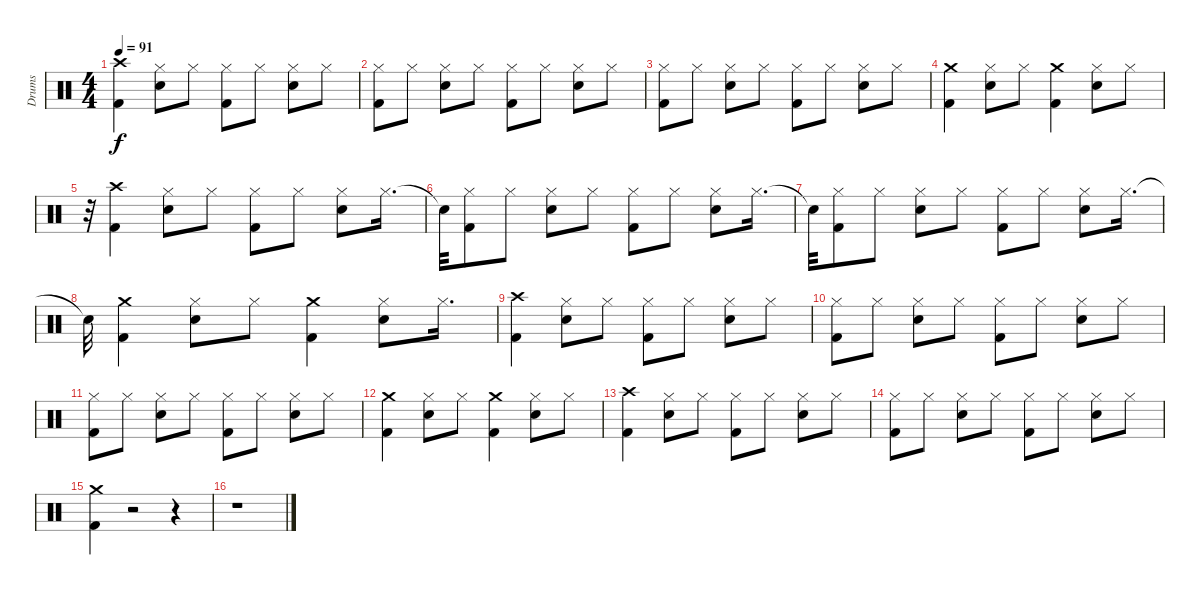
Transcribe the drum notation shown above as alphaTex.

\track ("Drums" "Drums") {instrument percussion}
\staff {score}
\articulation defaults
\ts (4 4)
\tempo 91
\clef neutral
\ks c
("Kick (hit) 2" "Crash high (hit)").4{dy f} ("Hi-Hat (closed)" "Electric Snare (hit)").8 "Hi-Hat (closed)".8 ("Hi-Hat (closed)" "Kick (hit) 2").8 "Hi-Hat (closed)".8 ("Hi-Hat (closed)" "Electric Snare (hit)").8 "Hi-Hat (closed)".8 |
("Hi-Hat (closed)" "Kick (hit) 2").8 "Hi-Hat (closed)".8 ("Hi-Hat (closed)" "Electric Snare (hit)").8 "Hi-Hat (closed)".8 ("Hi-Hat (closed)" "Kick (hit) 2").8 "Hi-Hat (closed)".8 ("Hi-Hat (closed)" "Electric Snare (hit)").8 "Hi-Hat (closed)".8 |
("Hi-Hat (closed)" "Kick (hit) 2").8 "Hi-Hat (closed)".8 ("Hi-Hat (closed)" "Electric Snare (hit)").8 "Hi-Hat (closed)".8 ("Hi-Hat (closed)" "Kick (hit) 2").8 "Hi-Hat (closed)".8 ("Hi-Hat (closed)" "Electric Snare (hit)").8 "Hi-Hat (closed)".8 |
("Crash medium (hit)" "Kick (hit) 2").4 ("Hi-Hat (closed)" "Electric Snare (hit)").8 "Hi-Hat (closed)".8 ("Crash medium (hit)" "Kick (hit) 2").4 ("Hi-Hat (closed)" "Electric Snare (hit)").8 "Hi-Hat (closed)".8 |
r.32 ("Kick (hit) 2" "Crash high (hit)").4 ("Hi-Hat (closed)" "Electric Snare (hit)").8 "Hi-Hat (closed)".8 ("Hi-Hat (closed)" "Kick (hit) 2").8 "Hi-Hat (closed)".8 ("Hi-Hat (closed)" "Electric Snare (hit)").8 "Hi-Hat (closed)".16{d} |
"Snare (hit)"{t}.32 ("Hi-Hat (closed)" "Kick (hit) 2").8 "Hi-Hat (closed)".8 ("Hi-Hat (closed)" "Electric Snare (hit)").8 "Hi-Hat (closed)".8 ("Hi-Hat (closed)" "Kick (hit) 2").8 "Hi-Hat (closed)".8 ("Hi-Hat (closed)" "Electric Snare (hit)").8 "Hi-Hat (closed)".16{d} |
"Snare (hit)"{t}.32 ("Hi-Hat (closed)" "Kick (hit) 2").8 "Hi-Hat (closed)".8 ("Hi-Hat (closed)" "Electric Snare (hit)").8 "Hi-Hat (closed)".8 ("Hi-Hat (closed)" "Kick (hit) 2").8 "Hi-Hat (closed)".8 ("Hi-Hat (closed)" "Electric Snare (hit)").8 "Hi-Hat (closed)".16{d} |
"Snare (hit)"{t}.32 ("Crash medium (hit)" "Kick (hit) 2").4 ("Hi-Hat (closed)" "Electric Snare (hit)").8 "Hi-Hat (closed)".8 ("Crash medium (hit)" "Kick (hit) 2").4 ("Hi-Hat (closed)" "Electric Snare (hit)").8 "Hi-Hat (closed)".16{d} |
("Kick (hit) 2" "Crash high (hit)").4 ("Hi-Hat (closed)" "Electric Snare (hit)").8 "Hi-Hat (closed)".8 ("Hi-Hat (closed)" "Kick (hit) 2").8 "Hi-Hat (closed)".8 ("Hi-Hat (closed)" "Electric Snare (hit)").8 "Hi-Hat (closed)".8 |
("Hi-Hat (closed)" "Kick (hit) 2").8 "Hi-Hat (closed)".8 ("Hi-Hat (closed)" "Electric Snare (hit)").8 "Hi-Hat (closed)".8 ("Hi-Hat (closed)" "Kick (hit) 2").8 "Hi-Hat (closed)".8 ("Hi-Hat (closed)" "Electric Snare (hit)").8 "Hi-Hat (closed)".8 |
("Hi-Hat (closed)" "Kick (hit) 2").8 "Hi-Hat (closed)".8 ("Hi-Hat (closed)" "Electric Snare (hit)").8 "Hi-Hat (closed)".8 ("Hi-Hat (closed)" "Kick (hit) 2").8 "Hi-Hat (closed)".8 ("Hi-Hat (closed)" "Electric Snare (hit)").8 "Hi-Hat (closed)".8 |
("Crash medium (hit)" "Kick (hit) 2").4 ("Hi-Hat (closed)" "Electric Snare (hit)").8 "Hi-Hat (closed)".8 ("Crash medium (hit)" "Kick (hit) 2").4 ("Hi-Hat (closed)" "Electric Snare (hit)").8 "Hi-Hat (closed)".8 |
("Kick (hit) 2" "Crash high (hit)").4 ("Hi-Hat (closed)" "Electric Snare (hit)").8 "Hi-Hat (closed)".8 ("Hi-Hat (closed)" "Kick (hit) 2").8 "Hi-Hat (closed)".8 ("Hi-Hat (closed)" "Electric Snare (hit)").8 "Hi-Hat (closed)".8 |
("Hi-Hat (closed)" "Kick (hit) 2").8 "Hi-Hat (closed)".8 ("Hi-Hat (closed)" "Electric Snare (hit)").8 "Hi-Hat (closed)".8 ("Hi-Hat (closed)" "Kick (hit) 2").8 "Hi-Hat (closed)".8 ("Hi-Hat (closed)" "Electric Snare (hit)").8 "Hi-Hat (closed)".8 |
("Kick (hit) 2" "Crash medium (hit)").4 r.2 r.4 |
r.1
